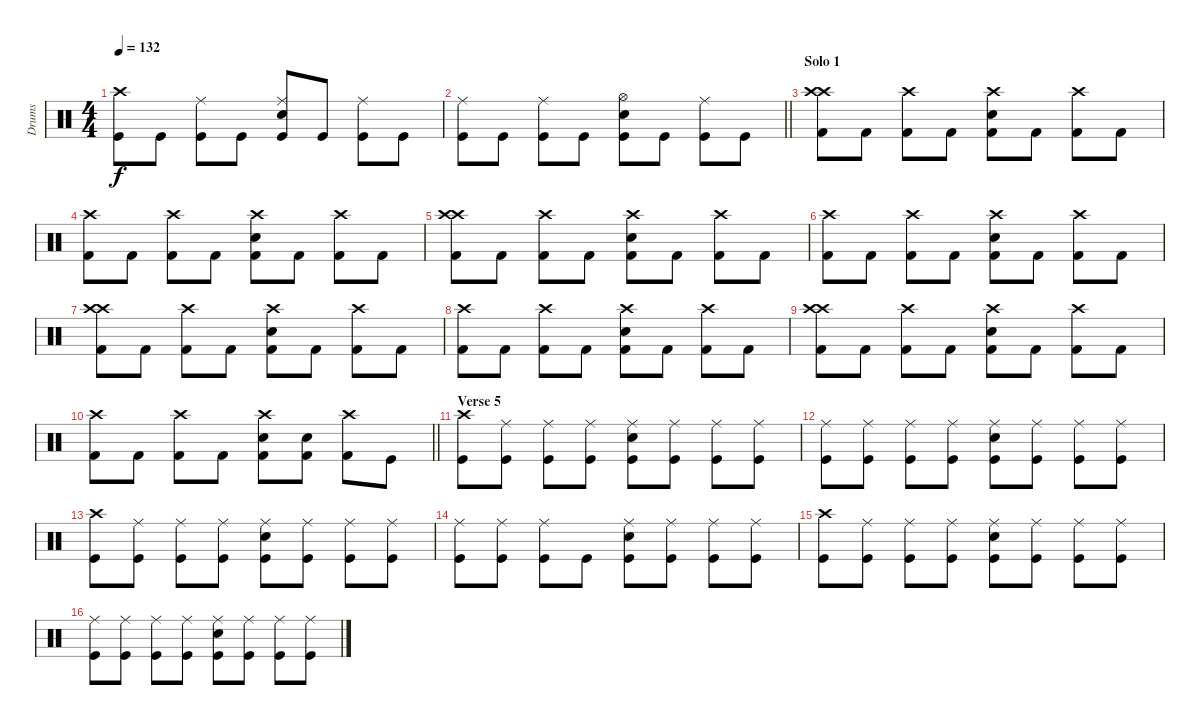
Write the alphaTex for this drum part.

\track ("Drums" "Drums") {instrument percussion}
\staff {score}
\articulation defaults
\ts (4 4)
\tempo 132
\clef neutral
\ks c
("Kick (hit)" "Crash high (hit)").8{dy f} "Kick (hit)".8 ("Kick (hit)" "Ride (middle)").8 "Kick (hit)".8 ("Kick (hit)" "Snare (hit) 2" "Ride (middle)").8 "Kick (hit)".8 ("Kick (hit)" "Ride (middle)").8 "Kick (hit)".8 |
\barLineRight lightlight
("Kick (hit)" "Ride (middle)").8 "Kick (hit)".8 ("Kick (hit)" "Ride (middle)").8 "Kick (hit)".8 ("Kick (hit)" "Hi-Hat (open)" "Snare (hit) 2").8 "Kick (hit)".8 ("Kick (hit)" "Ride (middle)").8 "Kick (hit)".8 |
\section ("" "Solo 1")
("Crash high (hit)" "Crash high (hit)" "Kick (hit) 2").8{volume 13} "Kick (hit) 2".8 ("Crash high (hit)" "Kick (hit) 2").8 "Kick (hit) 2".8 ("Crash high (hit)" "Electric Snare (hit)" "Kick (hit) 2").8 "Kick (hit) 2".8 ("Crash high (hit)" "Kick (hit) 2").8 "Kick (hit) 2".8 |
("Crash high (hit)" "Kick (hit) 2").8 "Kick (hit) 2".8 ("Crash high (hit)" "Kick (hit) 2").8 "Kick (hit) 2".8 ("Crash high (hit)" "Electric Snare (hit)" "Kick (hit) 2").8 "Kick (hit) 2".8 ("Crash high (hit)" "Kick (hit) 2").8 "Kick (hit) 2".8 |
("Crash high (hit)" "Crash high (hit)" "Kick (hit) 2").8 "Kick (hit) 2".8 ("Crash high (hit)" "Kick (hit) 2").8 "Kick (hit) 2".8 ("Crash high (hit)" "Electric Snare (hit)" "Kick (hit) 2").8 "Kick (hit) 2".8 ("Crash high (hit)" "Kick (hit) 2").8 "Kick (hit) 2".8 |
("Crash high (hit)" "Kick (hit) 2").8 "Kick (hit) 2".8 ("Crash high (hit)" "Kick (hit) 2").8 "Kick (hit) 2".8 ("Crash high (hit)" "Electric Snare (hit)" "Kick (hit) 2").8 "Kick (hit) 2".8 ("Crash high (hit)" "Kick (hit) 2").8 "Kick (hit) 2".8 |
("Crash high (hit)" "Crash high (hit)" "Kick (hit) 2").8 "Kick (hit) 2".8 ("Crash high (hit)" "Kick (hit) 2").8 "Kick (hit) 2".8 ("Crash high (hit)" "Electric Snare (hit)" "Kick (hit) 2").8 "Kick (hit) 2".8 ("Crash high (hit)" "Kick (hit) 2").8 "Kick (hit) 2".8 |
("Crash high (hit)" "Kick (hit) 2").8 "Kick (hit) 2".8 ("Crash high (hit)" "Kick (hit) 2").8 "Kick (hit) 2".8 ("Crash high (hit)" "Electric Snare (hit)" "Kick (hit) 2").8 "Kick (hit) 2".8 ("Crash high (hit)" "Kick (hit) 2").8 "Kick (hit) 2".8 |
("Crash high (hit)" "Crash high (hit)" "Kick (hit) 2").8 "Kick (hit) 2".8 ("Crash high (hit)" "Kick (hit) 2").8 "Kick (hit) 2".8 ("Crash high (hit)" "Electric Snare (hit)" "Kick (hit) 2").8 "Kick (hit) 2".8 ("Crash high (hit)" "Kick (hit) 2").8 "Kick (hit) 2".8 |
\barLineRight lightlight
("Crash high (hit)" "Kick (hit) 2").8 "Kick (hit) 2".8 ("Crash high (hit)" "Kick (hit) 2").8 "Kick (hit) 2".8 ("Crash high (hit)" "Electric Snare (hit)" "Kick (hit) 2").8 ("Snare (hit) 2" "Kick (hit) 2").8 ("Crash high (hit)" "Kick (hit) 2").8 "Kick (hit)".8 |
\section ("" "Verse 5")
("Kick (hit)" "Crash high (hit)").8 ("Kick (hit)" "Ride (middle)").8 ("Kick (hit)" "Ride (middle)").8 ("Kick (hit)" "Ride (middle)").8 ("Kick (hit)" "Ride (middle)" "Snare (hit) 2").8 ("Kick (hit)" "Ride (middle)").8 ("Kick (hit)" "Ride (middle)").8 ("Kick (hit)" "Ride (middle)").8 |
("Kick (hit)" "Ride (middle)").8 ("Kick (hit)" "Ride (middle)").8 ("Kick (hit)" "Ride (middle)").8 ("Kick (hit)" "Ride (middle)").8 ("Kick (hit)" "Ride (middle)" "Snare (hit) 2").8 ("Kick (hit)" "Ride (middle)").8 ("Kick (hit)" "Ride (middle)").8 ("Kick (hit)" "Ride (middle)").8 |
("Kick (hit)" "Crash high (hit)").8 ("Kick (hit)" "Ride (middle)").8 ("Kick (hit)" "Ride (middle)").8 ("Kick (hit)" "Ride (middle)").8 ("Kick (hit)" "Snare (hit) 2" "Ride (middle)").8 ("Kick (hit)" "Ride (middle)").8 ("Kick (hit)" "Ride (middle)").8 ("Kick (hit)" "Ride (middle)").8 |
("Kick (hit)" "Ride (middle)").8 ("Kick (hit)" "Ride (middle)").8 ("Kick (hit)" "Ride (middle)").8 "Kick (hit)".8 ("Kick (hit)" "Ride (middle)" "Snare (hit) 2").8 ("Kick (hit)" "Ride (middle)").8 ("Kick (hit)" "Ride (middle)").8 ("Kick (hit)" "Ride (middle)").8 |
("Kick (hit)" "Crash high (hit)").8 ("Kick (hit)" "Ride (middle)").8 ("Kick (hit)" "Ride (middle)").8 ("Kick (hit)" "Ride (middle)").8 ("Kick (hit)" "Snare (hit) 2" "Ride (middle)").8 ("Kick (hit)" "Ride (middle)").8 ("Kick (hit)" "Ride (middle)").8 ("Kick (hit)" "Ride (middle)").8 |
("Kick (hit)" "Ride (middle)").8 ("Kick (hit)" "Ride (middle)").8 ("Kick (hit)" "Ride (middle)").8 ("Kick (hit)" "Ride (middle)").8 ("Kick (hit)" "Ride (middle)" "Snare (hit) 2").8 ("Kick (hit)" "Ride (middle)").8 ("Kick (hit)" "Ride (middle)").8 ("Kick (hit)" "Ride (middle)").8
